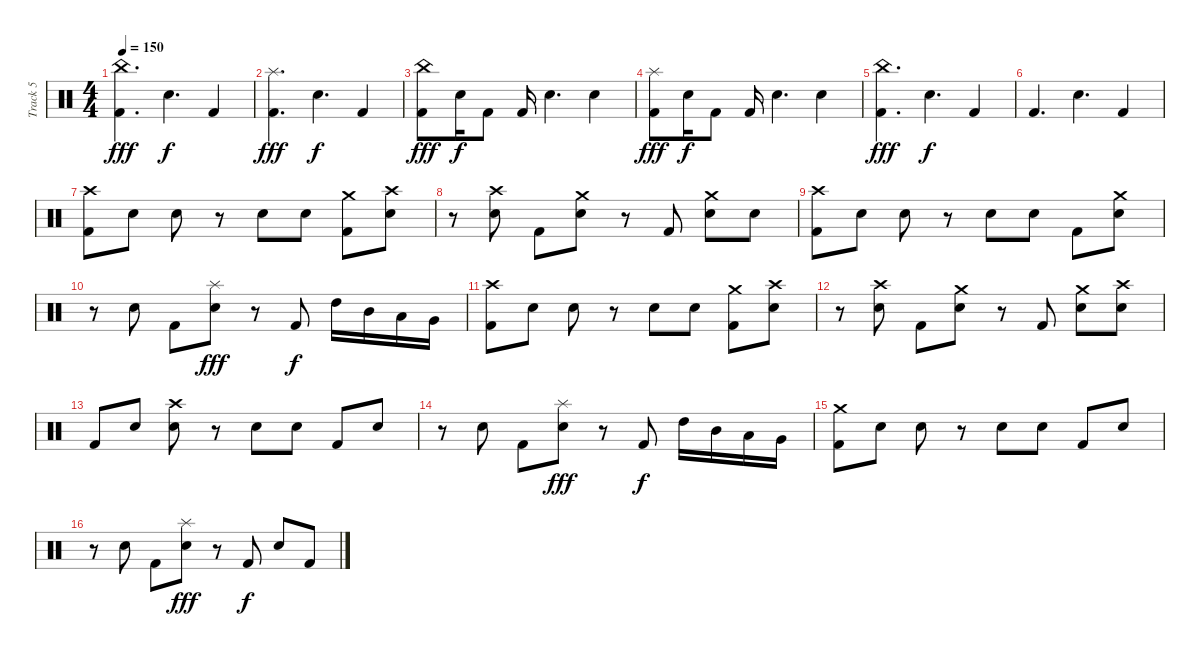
\track ("Track 5" "Track 5") {instrument percussion}
\staff {score}
\articulation defaults
\ts (4 4)
\tempo 150
\clef neutral
\ks c
("China (hit)" "Kick (hit) 2").4{d dy fff} "Electric Snare (hit)".4{d dy f} "Kick (hit) 2".4 |
("Splash (hit)" "Kick (hit) 2").4{d dy fff} "Electric Snare (hit)".4{d dy f} "Kick (hit) 2".4 |
("China (hit)" "Kick (hit) 2").8{dy fff} "Electric Snare (hit)".16{dy f} "Kick (hit) 2".8 "Kick (hit) 2".16 "Electric Snare (hit)".4{d} "Electric Snare (hit)".4 |
("Splash (hit)" "Kick (hit) 2").8{dy fff} "Electric Snare (hit)".16{dy f} "Kick (hit) 2".8 "Kick (hit) 2".16 "Electric Snare (hit)".4{d} "Electric Snare (hit)".4 |
("China (hit)" "Kick (hit) 2").4{d dy fff} "Electric Snare (hit)".4{d dy f} "Kick (hit) 2".4 |
"Kick (hit) 2".4{d} "Electric Snare (hit)".4{d} "Kick (hit) 2".4 |
("Crash high (hit)" "Kick (hit) 2").8 "Electric Snare (hit)".8 "Electric Snare (hit)".8 r.8 "Electric Snare (hit)".8 "Electric Snare (hit)".8 ("Crash medium (hit)" "Kick (hit) 2").8 ("Crash high (hit)" "Electric Snare (hit)").8 |
r.8 ("Crash high (hit)" "Electric Snare (hit)").8 "Kick (hit) 2".8 ("Crash medium (hit)" "Electric Snare (hit)").8 r.8 "Kick (hit) 2".8 ("Crash medium (hit)" "Electric Snare (hit)").8 "Electric Snare (hit)".8 |
("Crash high (hit)" "Kick (hit) 2").8 "Electric Snare (hit)".8 "Electric Snare (hit)".8 r.8 "Electric Snare (hit)".8 "Electric Snare (hit)".8 "Kick (hit) 2".8 ("Crash medium (hit)" "Electric Snare (hit)").8 |
r.8 "Electric Snare (hit)".8 "Kick (hit) 2".8 ("Splash (hit)" "Electric Snare (hit)").8{dy fff} r.8 "Kick (hit) 2".8{dy f} "High Tom (hit)".16 "Mid Tom (hit)".16 "Low Tom (hit)".16 "Very Low Tom (hit)".16 |
("Crash high (hit)" "Kick (hit) 2").8 "Electric Snare (hit)".8 "Electric Snare (hit)".8 r.8 "Electric Snare (hit)".8 "Electric Snare (hit)".8 ("Crash medium (hit)" "Kick (hit) 2").8 ("Crash high (hit)" "Electric Snare (hit)").8 |
r.8 ("Crash high (hit)" "Electric Snare (hit)").8 "Kick (hit) 2".8 ("Crash medium (hit)" "Electric Snare (hit)").8 r.8 "Kick (hit) 2".8 ("Crash medium (hit)" "Electric Snare (hit)").8 ("Crash high (hit)" "Electric Snare (hit)").8 |
"Kick (hit) 2".8 "Electric Snare (hit)".8 ("Crash high (hit)" "Electric Snare (hit)").8 r.8 "Electric Snare (hit)".8 "Electric Snare (hit)".8 "Kick (hit) 2".8 "Electric Snare (hit)".8 |
r.8 "Electric Snare (hit)".8 "Kick (hit) 2".8 ("Splash (hit)" "Electric Snare (hit)").8{dy fff} r.8 "Kick (hit) 2".8{dy f} "High Tom (hit)".16 "Mid Tom (hit)".16 "Low Tom (hit)".16 "Very Low Tom (hit)".16 |
("Crash medium (hit)" "Kick (hit) 2").8 "Electric Snare (hit)".8 "Electric Snare (hit)".8 r.8 "Electric Snare (hit)".8 "Electric Snare (hit)".8 "Kick (hit) 2".8 "Electric Snare (hit)".8 |
r.8 "Electric Snare (hit)".8 "Kick (hit) 2".8 ("Splash (hit)" "Electric Snare (hit)").8{dy fff} r.8 "Kick (hit) 2".8{dy f} "Electric Snare (hit)".8 "Kick (hit) 2".8
